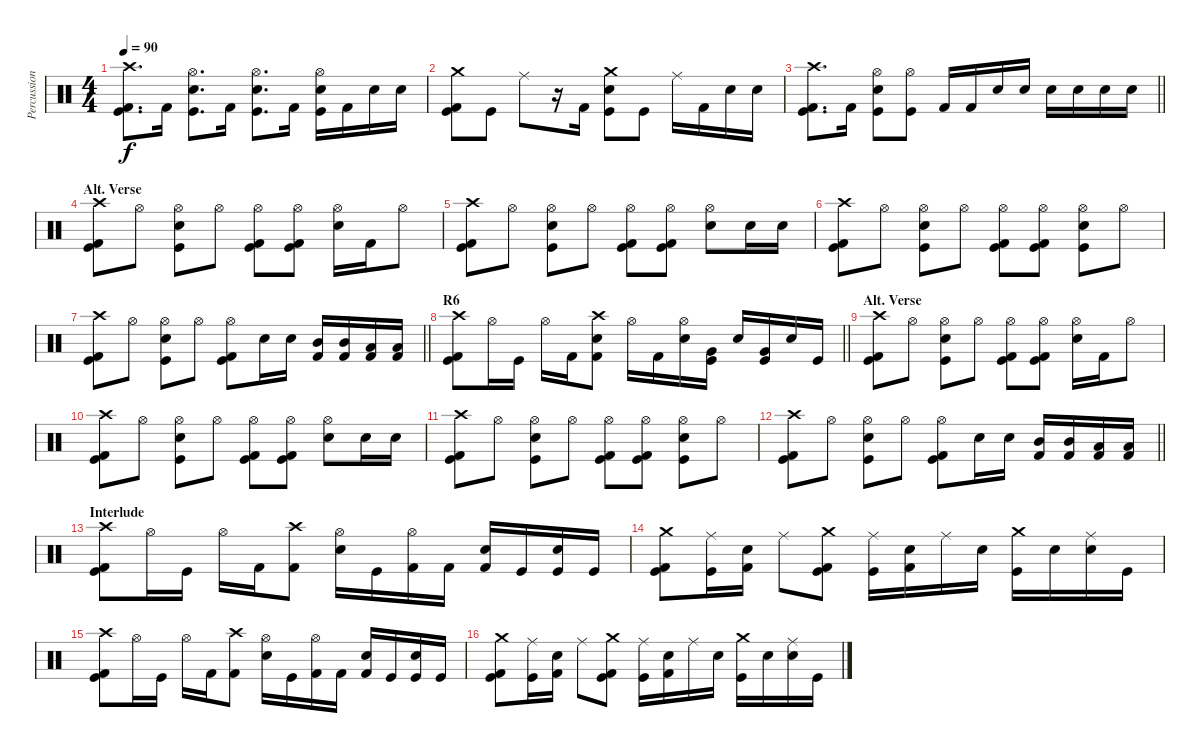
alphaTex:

\track ("Percussion" "Percussion") {instrument percussion}
\staff {score}
\articulation defaults
\ts (4 4)
\tempo 90
\clef neutral
\ks c
("Kick (hit)" "Kick (hit) 2" "Crash high (hit)").8{d dy f} "Kick (hit) 2".16 ("Kick (hit)" "Snare (hit) 2" "Hi-Hat (open)").8{d} "Kick (hit) 2".16 ("Kick (hit)" "Snare (hit) 2" "Hi-Hat (open)").8{d} "Kick (hit) 2".16 ("Kick (hit)" "Snare (hit) 2" "Hi-Hat (open)").16 "Kick (hit) 2".16 "Electric Snare (hit)".16 "Electric Snare (hit)".16 |
("Kick (hit)" "Kick (hit) 2" "Crash medium (hit)").8 "Kick (hit)".8 "Ride (middle)".8 r.16 "Kick (hit) 2".16 ("Kick (hit)" "Electric Snare (hit)" "Crash medium (hit)").8 "Kick (hit)".8 "Ride (middle)".16 "Kick (hit) 2".16 "Electric Snare (hit)".16 "Electric Snare (hit)".16 |
\barLineRight lightlight
("Kick (hit)" "Kick (hit) 2" "Crash high (hit)").8{d} "Kick (hit) 2".16 ("Kick (hit)" "Snare (hit) 2" "Hi-Hat (open)").8 ("Kick (hit)" "Hi-Hat (open)").8 "Kick (hit) 2".16 "Kick (hit) 2".16 "Electric Snare (hit)".16 "Electric Snare (hit)".16 "Snare (hit) 2".16 "Electric Snare (hit)".16 "Electric Snare (hit)".16 "Snare (hit) 2".16 |
\section ("" "Alt. Verse")
("Kick (hit)" "Kick (hit) 2" "Crash high (hit)").8 "Hi-Hat (open)".8 ("Kick (hit)" "Electric Snare (hit)" "Hi-Hat (open)").8 "Hi-Hat (open)".8 ("Kick (hit)" "Kick (hit) 2" "Hi-Hat (open)").8 ("Kick (hit)" "Kick (hit) 2" "Hi-Hat (open)").8 ("Electric Snare (hit)" "Hi-Hat (open)").16 "Kick (hit) 2".16 "Hi-Hat (open)".8 |
("Kick (hit)" "Kick (hit) 2" "Crash high (hit)").8 "Hi-Hat (open)".8 ("Kick (hit)" "Electric Snare (hit)" "Hi-Hat (open)").8 "Hi-Hat (open)".8 ("Kick (hit)" "Kick (hit) 2" "Hi-Hat (open)").8 ("Kick (hit)" "Kick (hit) 2" "Hi-Hat (open)").8 ("Electric Snare (hit)" "Hi-Hat (open)").8 "Electric Snare (hit)".16 "Electric Snare (hit)".16 |
("Kick (hit)" "Kick (hit) 2" "Crash high (hit)").8 "Hi-Hat (open)".8 ("Kick (hit)" "Electric Snare (hit)" "Hi-Hat (open)").8 "Hi-Hat (open)".8 ("Kick (hit)" "Kick (hit) 2" "Hi-Hat (open)").8 ("Kick (hit)" "Kick (hit) 2" "Hi-Hat (open)").8 ("Kick (hit)" "Electric Snare (hit)" "Hi-Hat (open)").8 "Hi-Hat (open)".8 |
\barLineRight lightlight
("Kick (hit)" "Kick (hit) 2" "Crash high (hit)").8 "Hi-Hat (open)".8 ("Kick (hit)" "Electric Snare (hit)" "Hi-Hat (open)").8 "Hi-Hat (open)".8 ("Kick (hit)" "Kick (hit) 2" "Hi-Hat (open)").8 "Electric Snare (hit)".16 "Electric Snare (hit)".16 ("Kick (hit) 2" "Mid Tom (hit)").16 ("Kick (hit) 2" "Mid Tom (hit)").16 ("Kick (hit) 2" "Low Tom (hit)").16 ("Kick (hit) 2" "Low Tom (hit)").16 |
\section ("" "R6")
\barLineRight lightlight
("Kick (hit)" "Kick (hit) 2" "Crash high (hit)").8 "Hi-Hat (open)".16 "Kick (hit)".16 "Hi-Hat (open)".16 "Kick (hit) 2".16 ("Kick (hit) 2" "Electric Snare (hit)" "Crash high (hit)").8 "Hi-Hat (open)".16 "Kick (hit) 2".16 ("Electric Snare (hit)" "Hi-Hat (open)").16 ("Kick (hit)" "Very Low Tom (hit)").16 "Electric Snare (hit)".16 ("Kick (hit)" "Very Low Tom (hit)").16 "Electric Snare (hit)".16 "Kick (hit)".16 |
\section ("" "Alt. Verse")
("Kick (hit)" "Kick (hit) 2" "Crash high (hit)").8 "Hi-Hat (open)".8 ("Kick (hit)" "Electric Snare (hit)" "Hi-Hat (open)").8 "Hi-Hat (open)".8 ("Kick (hit)" "Kick (hit) 2" "Hi-Hat (open)").8 ("Kick (hit)" "Kick (hit) 2" "Hi-Hat (open)").8 ("Electric Snare (hit)" "Hi-Hat (open)").16 "Kick (hit) 2".16 "Hi-Hat (open)".8 |
("Kick (hit)" "Kick (hit) 2" "Crash high (hit)").8 "Hi-Hat (open)".8 ("Kick (hit)" "Electric Snare (hit)" "Hi-Hat (open)").8 "Hi-Hat (open)".8 ("Kick (hit)" "Kick (hit) 2" "Hi-Hat (open)").8 ("Kick (hit)" "Kick (hit) 2" "Hi-Hat (open)").8 ("Electric Snare (hit)" "Hi-Hat (open)").8 "Electric Snare (hit)".16 "Electric Snare (hit)".16 |
("Kick (hit)" "Kick (hit) 2" "Crash high (hit)").8 "Hi-Hat (open)".8 ("Kick (hit)" "Electric Snare (hit)" "Hi-Hat (open)").8 "Hi-Hat (open)".8 ("Kick (hit)" "Kick (hit) 2" "Hi-Hat (open)").8 ("Kick (hit)" "Kick (hit) 2" "Hi-Hat (open)").8 ("Kick (hit)" "Electric Snare (hit)" "Hi-Hat (open)").8 "Hi-Hat (open)".8 |
\barLineRight lightlight
("Kick (hit)" "Kick (hit) 2" "Crash high (hit)").8 "Hi-Hat (open)".8 ("Kick (hit)" "Electric Snare (hit)" "Hi-Hat (open)").8 "Hi-Hat (open)".8 ("Kick (hit)" "Kick (hit) 2" "Hi-Hat (open)").8 "Electric Snare (hit)".16 "Electric Snare (hit)".16 ("Kick (hit) 2" "Mid Tom (hit)").16 ("Kick (hit) 2" "Mid Tom (hit)").16 ("Kick (hit) 2" "Low Tom (hit)").16 ("Kick (hit) 2" "Low Tom (hit)").16 |
\section ("" "Interlude")
("Kick (hit)" "Kick (hit) 2" "Crash high (hit)").8 "Hi-Hat (open)".16 "Kick (hit)".16 "Hi-Hat (open)".16 "Kick (hit) 2".16 ("Kick (hit) 2" "Crash high (hit)").8 ("Electric Snare (hit)" "Hi-Hat (open)").16 "Kick (hit)".16 ("Kick (hit) 2" "Hi-Hat (open)").16 "Kick (hit) 2".16 ("Kick (hit) 2" "Electric Snare (hit)").16 "Kick (hit)".16 ("Kick (hit)" "Snare (hit) 2").16 "Kick (hit)".16 |
("Kick (hit)" "Kick (hit) 2" "Crash medium (hit)").8 ("Kick (hit)" "Ride (middle)").16 ("Kick (hit) 2" "Electric Snare (hit)").16 "Ride (middle)".8 ("Kick (hit)" "Kick (hit) 2" "Crash medium (hit)").8 ("Kick (hit)" "Ride (middle)").16 ("Kick (hit) 2" "Electric Snare (hit)").16 "Ride (middle)".16 "Electric Snare (hit)".16 ("Kick (hit)" "Crash medium (hit)").16 "Electric Snare (hit)".16 ("Electric Snare (hit)" "Ride (middle)").16 "Kick (hit)".16 |
("Kick (hit)" "Kick (hit) 2" "Crash high (hit)").8 "Hi-Hat (open)".16 "Kick (hit)".16 "Hi-Hat (open)".16 "Kick (hit) 2".16 ("Kick (hit) 2" "Crash high (hit)").8 ("Electric Snare (hit)" "Hi-Hat (open)").16 "Kick (hit)".16 ("Kick (hit) 2" "Hi-Hat (open)").16 "Kick (hit) 2".16 ("Kick (hit) 2" "Electric Snare (hit)").16 "Kick (hit)".16 ("Kick (hit)" "Snare (hit) 2").16 "Kick (hit)".16 |
("Kick (hit)" "Kick (hit) 2" "Crash medium (hit)").8 ("Kick (hit)" "Ride (middle)").16 ("Kick (hit) 2" "Electric Snare (hit)").16 "Ride (middle)".8 ("Kick (hit)" "Kick (hit) 2" "Crash medium (hit)").8 ("Kick (hit)" "Ride (middle)").16 ("Kick (hit) 2" "Electric Snare (hit)").16 "Ride (middle)".16 "Electric Snare (hit)".16 ("Kick (hit)" "Crash medium (hit)").16 "Electric Snare (hit)".16 ("Electric Snare (hit)" "Ride (middle)").16 "Kick (hit)".16
